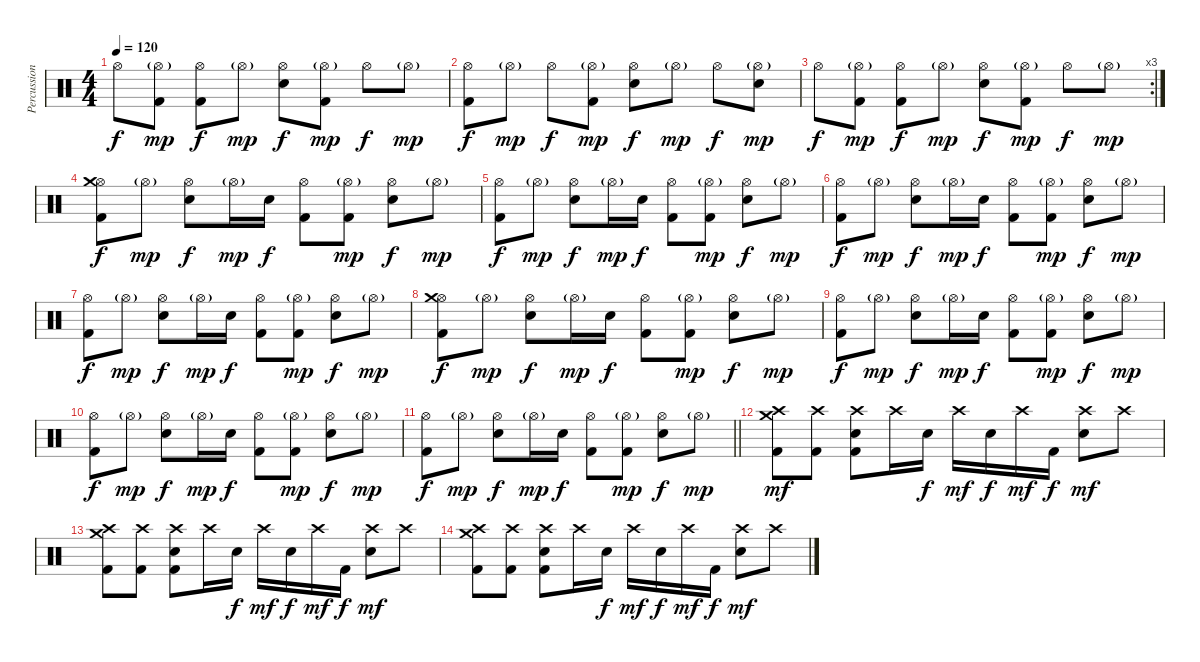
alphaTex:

\track ("Percussion" "Percussion") {instrument percussion}
\staff {score}
\articulation defaults
\ts (4 4)
\tempo 120
\clef neutral
\ks c "Hi-Hat (open)".8{dy f}
("Hi-Hat (open)"{g} "Kick (hit) 2").8{dy mp} ("Hi-Hat (open)" "Kick (hit) 2").8{dy f} "Hi-Hat (open)"{g}.8{dy mp} ("Hi-Hat (open)" "Electric Snare (hit)").8{dy f} ("Hi-Hat (open)"{g} "Kick (hit) 2").8{dy mp} "Hi-Hat (open)".8{dy f} "Hi-Hat (open)"{g}.8{dy mp} |
("Hi-Hat (open)" "Kick (hit) 2").8{dy f} "Hi-Hat (open)"{g}.8{dy mp} "Hi-Hat (open)".8{dy f} ("Hi-Hat (open)"{g} "Kick (hit) 2").8{dy mp} ("Hi-Hat (open)" "Electric Snare (hit)").8{dy f} "Hi-Hat (open)"{g}.8{dy mp} "Hi-Hat (open)".8{dy f} ("Hi-Hat (open)"{g} "Electric Snare (hit)").8{dy mp} |
\rc 3 "Hi-Hat (open)".8{dy f}
("Hi-Hat (open)"{g} "Kick (hit) 2").8{dy mp} ("Hi-Hat (open)" "Kick (hit) 2").8{dy f} "Hi-Hat (open)"{g}.8{dy mp} ("Hi-Hat (open)" "Electric Snare (hit)").8{dy f} ("Hi-Hat (open)"{g} "Kick (hit) 2").8{dy mp} "Hi-Hat (open)".8{dy f} "Hi-Hat (open)"{g}.8{dy mp} |
("Hi-Hat (open)" "Kick (hit) 2" "Crash medium (hit)").8{dy f} "Hi-Hat (open)"{g}.8{dy mp} ("Hi-Hat (open)" "Electric Snare (hit)").8{dy f} "Hi-Hat (open)"{g}.16{dy mp} "Electric Snare (hit)".16{dy f} ("Hi-Hat (open)" "Kick (hit) 2").8 ("Hi-Hat (open)"{g} "Kick (hit) 2").8{dy mp} ("Hi-Hat (open)" "Electric Snare (hit)").8{dy f} "Hi-Hat (open)"{g}.8{dy mp} |
("Hi-Hat (open)" "Kick (hit) 2").8{dy f} "Hi-Hat (open)"{g}.8{dy mp} ("Hi-Hat (open)" "Electric Snare (hit)").8{dy f} "Hi-Hat (open)"{g}.16{dy mp} "Electric Snare (hit)".16{dy f} ("Hi-Hat (open)" "Kick (hit) 2").8 ("Hi-Hat (open)"{g} "Kick (hit) 2").8{dy mp} ("Hi-Hat (open)" "Electric Snare (hit)").8{dy f} "Hi-Hat (open)"{g}.8{dy mp} |
("Hi-Hat (open)" "Kick (hit) 2").8{dy f} "Hi-Hat (open)"{g}.8{dy mp} ("Hi-Hat (open)" "Electric Snare (hit)").8{dy f} "Hi-Hat (open)"{g}.16{dy mp} "Electric Snare (hit)".16{dy f} ("Hi-Hat (open)" "Kick (hit) 2").8 ("Hi-Hat (open)"{g} "Kick (hit) 2").8{dy mp} ("Hi-Hat (open)" "Electric Snare (hit)").8{dy f} "Hi-Hat (open)"{g}.8{dy mp} |
("Hi-Hat (open)" "Kick (hit) 2").8{dy f} "Hi-Hat (open)"{g}.8{dy mp} ("Hi-Hat (open)" "Electric Snare (hit)").8{dy f} "Hi-Hat (open)"{g}.16{dy mp} "Electric Snare (hit)".16{dy f} ("Hi-Hat (open)" "Kick (hit) 2").8 ("Hi-Hat (open)"{g} "Kick (hit) 2").8{dy mp} ("Hi-Hat (open)" "Electric Snare (hit)").8{dy f} "Hi-Hat (open)"{g}.8{dy mp} |
("Hi-Hat (open)" "Kick (hit) 2" "Crash medium (hit)").8{dy f} "Hi-Hat (open)"{g}.8{dy mp} ("Hi-Hat (open)" "Electric Snare (hit)").8{dy f} "Hi-Hat (open)"{g}.16{dy mp} "Electric Snare (hit)".16{dy f} ("Hi-Hat (open)" "Kick (hit) 2").8 ("Hi-Hat (open)"{g} "Kick (hit) 2").8{dy mp} ("Hi-Hat (open)" "Electric Snare (hit)").8{dy f} "Hi-Hat (open)"{g}.8{dy mp} |
("Hi-Hat (open)" "Kick (hit) 2").8{dy f} "Hi-Hat (open)"{g}.8{dy mp} ("Hi-Hat (open)" "Electric Snare (hit)").8{dy f} "Hi-Hat (open)"{g}.16{dy mp} "Electric Snare (hit)".16{dy f} ("Hi-Hat (open)" "Kick (hit) 2").8 ("Hi-Hat (open)"{g} "Kick (hit) 2").8{dy mp} ("Hi-Hat (open)" "Electric Snare (hit)").8{dy f} "Hi-Hat (open)"{g}.8{dy mp} |
("Hi-Hat (open)" "Kick (hit) 2").8{dy f} "Hi-Hat (open)"{g}.8{dy mp} ("Hi-Hat (open)" "Electric Snare (hit)").8{dy f} "Hi-Hat (open)"{g}.16{dy mp} "Electric Snare (hit)".16{dy f} ("Hi-Hat (open)" "Kick (hit) 2").8 ("Hi-Hat (open)"{g} "Kick (hit) 2").8{dy mp} ("Hi-Hat (open)" "Electric Snare (hit)").8{dy f} "Hi-Hat (open)"{g}.8{dy mp} |
\barLineRight lightlight
("Hi-Hat (open)" "Kick (hit) 2").8{dy f} "Hi-Hat (open)"{g}.8{dy mp} ("Hi-Hat (open)" "Electric Snare (hit)").8{dy f} "Hi-Hat (open)"{g}.16{dy mp} "Electric Snare (hit)".16{dy f} ("Hi-Hat (open)" "Kick (hit) 2").8 ("Hi-Hat (open)"{g} "Kick (hit) 2").8{dy mp} ("Hi-Hat (open)" "Electric Snare (hit)").8{dy f} "Hi-Hat (open)"{g}.8{dy mp} |
("Crash high (hit)" "Kick (hit) 2" "Crash medium (hit)").8{dy mf} ("Crash high (hit)" "Kick (hit) 2").8 ("Crash high (hit)" "Kick (hit) 2" "Electric Snare (hit)").8 "Crash high (hit)".16 "Electric Snare (hit)".16{dy f} "Crash high (hit)".16{dy mf} "Electric Snare (hit)".16{dy f} "Crash high (hit)".16{dy mf} "Kick (hit) 2".16{dy f} ("Crash high (hit)" "Electric Snare (hit)").8{dy mf} "Crash high (hit)".8 |
("Crash high (hit)" "Kick (hit) 2" "Crash medium (hit)").8 ("Crash high (hit)" "Kick (hit) 2").8 ("Crash high (hit)" "Kick (hit) 2" "Electric Snare (hit)").8 "Crash high (hit)".16 "Electric Snare (hit)".16{dy f} "Crash high (hit)".16{dy mf} "Electric Snare (hit)".16{dy f} "Crash high (hit)".16{dy mf} "Kick (hit) 2".16{dy f} ("Crash high (hit)" "Electric Snare (hit)").8{dy mf} "Crash high (hit)".8 |
("Crash high (hit)" "Kick (hit) 2" "Crash medium (hit)").8 ("Crash high (hit)" "Kick (hit) 2").8 ("Crash high (hit)" "Kick (hit) 2" "Electric Snare (hit)").8 "Crash high (hit)".16 "Electric Snare (hit)".16{dy f} "Crash high (hit)".16{dy mf} "Electric Snare (hit)".16{dy f} "Crash high (hit)".16{dy mf} "Kick (hit) 2".16{dy f} ("Crash high (hit)" "Electric Snare (hit)").8{dy mf} "Crash high (hit)".8
